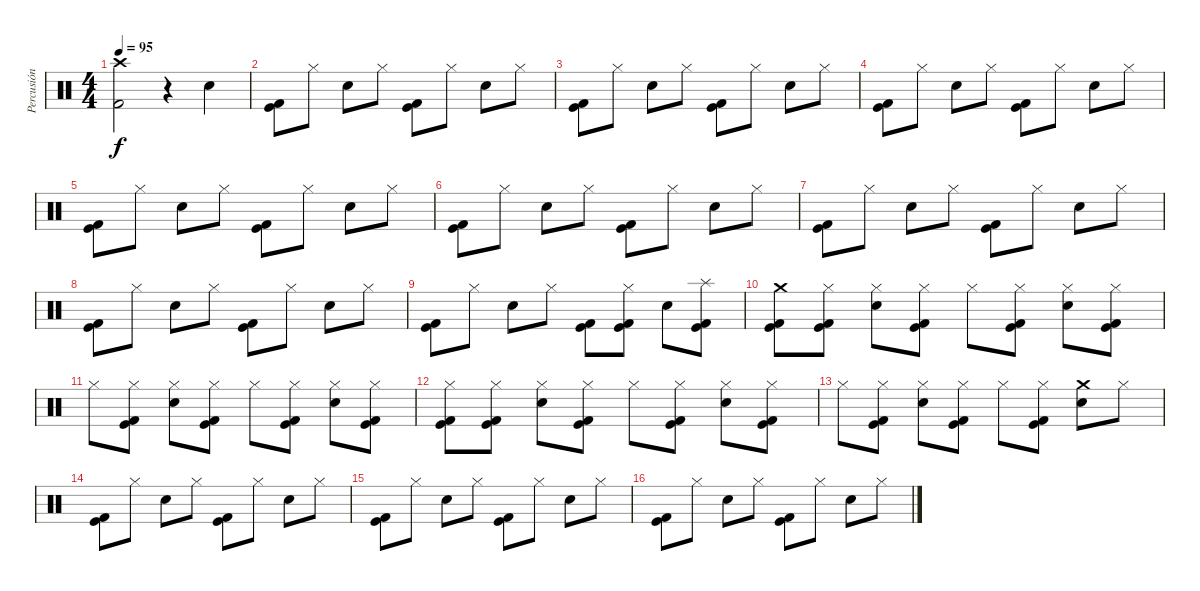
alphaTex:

\track ("Percusión" "Percusión") {instrument percussion}
\staff {score}
\articulation defaults
\ts (4 4)
\tempo 95
\clef neutral
\ks c
("Kick (hit) 2" "Crash high (hit)").2{dy f} r.4 "Snare (hit) 2".4 |
("Kick (hit) 2" "Kick (hit)").8 "Hi-Hat (closed)".8 "Snare (hit) 2".8 "Hi-Hat (closed)".8 ("Kick (hit) 2" "Kick (hit)").8 "Hi-Hat (closed)".8 "Snare (hit) 2".8 "Hi-Hat (closed)".8 |
("Kick (hit) 2" "Kick (hit)").8 "Hi-Hat (closed)".8 "Snare (hit) 2".8 "Hi-Hat (closed)".8 ("Kick (hit) 2" "Kick (hit)").8 "Hi-Hat (closed)".8 "Snare (hit) 2".8 "Hi-Hat (closed)".8 |
("Kick (hit) 2" "Kick (hit)").8 "Hi-Hat (closed)".8 "Snare (hit) 2".8 "Hi-Hat (closed)".8 ("Kick (hit) 2" "Kick (hit)").8 "Hi-Hat (closed)".8 "Snare (hit) 2".8 "Hi-Hat (closed)".8 |
("Kick (hit) 2" "Kick (hit)").8 "Hi-Hat (closed)".8 "Snare (hit) 2".8 "Hi-Hat (closed)".8 ("Kick (hit) 2" "Kick (hit)").8 "Hi-Hat (closed)".8 "Snare (hit) 2".8 "Hi-Hat (closed)".8 |
("Kick (hit) 2" "Kick (hit)").8 "Hi-Hat (closed)".8 "Snare (hit) 2".8 "Hi-Hat (closed)".8 ("Kick (hit) 2" "Kick (hit)").8 "Hi-Hat (closed)".8 "Snare (hit) 2".8 "Hi-Hat (closed)".8 |
("Kick (hit) 2" "Kick (hit)").8 "Hi-Hat (closed)".8 "Snare (hit) 2".8 "Hi-Hat (closed)".8 ("Kick (hit) 2" "Kick (hit)").8 "Hi-Hat (closed)".8 "Snare (hit) 2".8 "Hi-Hat (closed)".8 |
("Kick (hit) 2" "Kick (hit)").8 "Hi-Hat (closed)".8 "Snare (hit) 2".8 "Hi-Hat (closed)".8 ("Kick (hit) 2" "Kick (hit)").8 "Hi-Hat (closed)".8 "Snare (hit) 2".8 "Hi-Hat (closed)".8 |
("Kick (hit) 2" "Kick (hit)").8 "Hi-Hat (closed)".8 "Snare (hit) 2".8 "Hi-Hat (closed)".8 ("Kick (hit) 2" "Kick (hit)").8 ("Kick (hit) 2" "Hi-Hat (closed)" "Kick (hit)").8 "Snare (hit) 2".8 ("Kick (hit) 2" "Splash (hit)" "Kick (hit)").8 |
("Kick (hit) 2" "Crash medium (hit)" "Kick (hit)").8 ("Kick (hit) 2" "Hi-Hat (closed)" "Kick (hit)").8 ("Snare (hit) 2" "Hi-Hat (closed)").8 ("Kick (hit) 2" "Hi-Hat (closed)" "Kick (hit)").8 "Hi-Hat (closed)".8 ("Kick (hit) 2" "Hi-Hat (closed)" "Kick (hit)").8 ("Snare (hit) 2" "Hi-Hat (closed)").8 ("Kick (hit) 2" "Hi-Hat (closed)" "Kick (hit)").8 |
"Hi-Hat (closed)".8 ("Kick (hit) 2" "Hi-Hat (closed)" "Kick (hit)").8 ("Snare (hit) 2" "Hi-Hat (closed)").8 ("Kick (hit) 2" "Hi-Hat (closed)" "Kick (hit)").8 "Hi-Hat (closed)".8 ("Kick (hit) 2" "Hi-Hat (closed)" "Kick (hit)").8 ("Snare (hit) 2" "Hi-Hat (closed)").8 ("Kick (hit) 2" "Hi-Hat (closed)" "Kick (hit)").8 |
("Kick (hit) 2" "Hi-Hat (closed)" "Kick (hit)").8 ("Kick (hit) 2" "Hi-Hat (closed)" "Kick (hit)").8 ("Snare (hit) 2" "Hi-Hat (closed)").8 ("Kick (hit) 2" "Hi-Hat (closed)" "Kick (hit)").8 "Hi-Hat (closed)".8 ("Kick (hit) 2" "Hi-Hat (closed)" "Kick (hit)").8 ("Snare (hit) 2" "Hi-Hat (closed)").8 ("Kick (hit) 2" "Hi-Hat (closed)" "Kick (hit)").8 |
"Hi-Hat (closed)".8 ("Kick (hit) 2" "Hi-Hat (closed)" "Kick (hit)").8 ("Snare (hit) 2" "Hi-Hat (closed)").8 ("Kick (hit) 2" "Hi-Hat (closed)" "Kick (hit)").8 "Hi-Hat (closed)".8 ("Kick (hit) 2" "Hi-Hat (closed)" "Kick (hit)").8 ("Snare (hit) 2" "Crash medium (hit)").8 "Hi-Hat (closed)".8 |
("Kick (hit) 2" "Kick (hit)").8 "Hi-Hat (closed)".8 "Snare (hit) 2".8 "Hi-Hat (closed)".8 ("Kick (hit) 2" "Kick (hit)").8 "Hi-Hat (closed)".8 "Snare (hit) 2".8 "Hi-Hat (closed)".8 |
("Kick (hit) 2" "Kick (hit)").8 "Hi-Hat (closed)".8 "Snare (hit) 2".8 "Hi-Hat (closed)".8 ("Kick (hit) 2" "Kick (hit)").8 "Hi-Hat (closed)".8 "Snare (hit) 2".8 "Hi-Hat (closed)".8 |
("Kick (hit) 2" "Kick (hit)").8 "Hi-Hat (closed)".8 "Snare (hit) 2".8 "Hi-Hat (closed)".8 ("Kick (hit) 2" "Kick (hit)").8 "Hi-Hat (closed)".8 "Snare (hit) 2".8 "Hi-Hat (closed)".8
